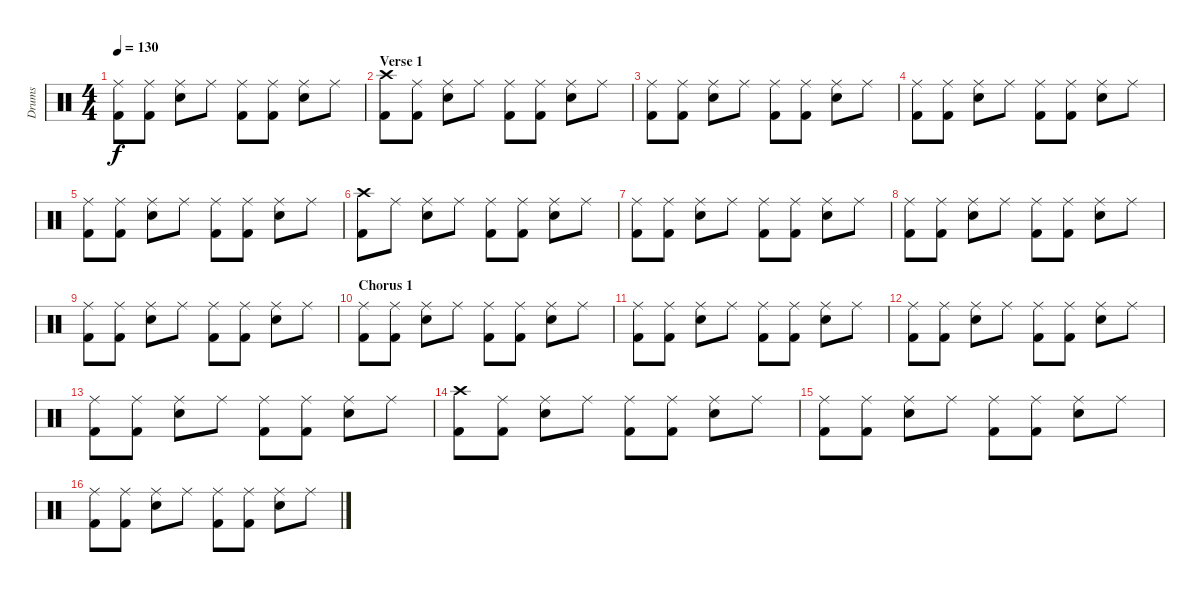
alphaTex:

\track ("Drums" "Drums") {instrument percussion}
\staff {score}
\articulation defaults
\ts (4 4)
\tempo 130
\clef neutral
\ks c
("Ride (middle)" "Kick (hit) 2").8{dy f} ("Ride (middle)" "Kick (hit) 2").8 ("Ride (middle)" "Electric Snare (hit)").8 "Ride (middle)".8 ("Ride (middle)" "Kick (hit) 2").8 ("Ride (middle)" "Kick (hit) 2").8 ("Ride (middle)" "Electric Snare (hit)").8 "Ride (middle)".8 |
\section ("" "Verse 1")
("Crash high (hit)" "Kick (hit) 2").8 ("Ride (middle)" "Kick (hit) 2").8 ("Ride (middle)" "Electric Snare (hit)").8 "Ride (middle)".8 ("Ride (middle)" "Kick (hit) 2").8 ("Ride (middle)" "Kick (hit) 2").8 ("Ride (middle)" "Electric Snare (hit)").8 "Ride (middle)".8 |
("Ride (middle)" "Kick (hit) 2").8 ("Ride (middle)" "Kick (hit) 2").8 ("Ride (middle)" "Electric Snare (hit)").8 "Ride (middle)".8 ("Ride (middle)" "Kick (hit) 2").8 ("Ride (middle)" "Kick (hit) 2").8 ("Ride (middle)" "Electric Snare (hit)").8 "Ride (middle)".8 |
("Ride (middle)" "Kick (hit) 2").8 ("Ride (middle)" "Kick (hit) 2").8 ("Ride (middle)" "Electric Snare (hit)").8 "Ride (middle)".8 ("Ride (middle)" "Kick (hit) 2").8 ("Ride (middle)" "Kick (hit) 2").8 ("Ride (middle)" "Electric Snare (hit)").8 "Ride (middle)".8 |
("Ride (middle)" "Kick (hit) 2").8 ("Ride (middle)" "Kick (hit) 2").8 ("Ride (middle)" "Electric Snare (hit)").8 "Ride (middle)".8 ("Ride (middle)" "Kick (hit) 2").8 ("Ride (middle)" "Kick (hit) 2").8 ("Ride (middle)" "Electric Snare (hit)").8 "Ride (middle)".8 |
("Crash high (hit)" "Kick (hit) 2").8 "Ride (middle)".8 ("Ride (middle)" "Electric Snare (hit)").8 "Ride (middle)".8 ("Ride (middle)" "Kick (hit) 2").8 ("Ride (middle)" "Kick (hit) 2").8 ("Ride (middle)" "Electric Snare (hit)").8 "Ride (middle)".8 |
("Ride (middle)" "Kick (hit) 2").8 ("Ride (middle)" "Kick (hit) 2").8 ("Ride (middle)" "Electric Snare (hit)").8 "Ride (middle)".8 ("Ride (middle)" "Kick (hit) 2").8 ("Ride (middle)" "Kick (hit) 2").8 ("Ride (middle)" "Electric Snare (hit)").8 "Ride (middle)".8 |
("Ride (middle)" "Kick (hit) 2").8 ("Ride (middle)" "Kick (hit) 2").8 ("Ride (middle)" "Electric Snare (hit)").8 "Ride (middle)".8 ("Ride (middle)" "Kick (hit) 2").8 ("Ride (middle)" "Kick (hit) 2").8 ("Ride (middle)" "Electric Snare (hit)").8 "Ride (middle)".8 |
("Ride (middle)" "Kick (hit) 2").8 ("Ride (middle)" "Kick (hit) 2").8 ("Ride (middle)" "Electric Snare (hit)").8 "Ride (middle)".8 ("Ride (middle)" "Kick (hit) 2").8 ("Ride (middle)" "Kick (hit) 2").8 ("Ride (middle)" "Electric Snare (hit)").8 "Ride (middle)".8 |
\section ("" "Chorus 1")
("Ride (middle)" "Kick (hit) 2").8 ("Ride (middle)" "Kick (hit) 2").8 ("Ride (middle)" "Electric Snare (hit)").8 "Ride (middle)".8 ("Ride (middle)" "Kick (hit) 2").8 ("Ride (middle)" "Kick (hit) 2").8 ("Ride (middle)" "Electric Snare (hit)").8 "Ride (middle)".8 |
("Ride (middle)" "Kick (hit) 2").8 ("Ride (middle)" "Kick (hit) 2").8 ("Ride (middle)" "Electric Snare (hit)").8 "Ride (middle)".8 ("Ride (middle)" "Kick (hit) 2").8 ("Ride (middle)" "Kick (hit) 2").8 ("Ride (middle)" "Electric Snare (hit)").8 "Ride (middle)".8 |
("Ride (middle)" "Kick (hit) 2").8 ("Ride (middle)" "Kick (hit) 2").8 ("Ride (middle)" "Electric Snare (hit)").8 "Ride (middle)".8 ("Ride (middle)" "Kick (hit) 2").8 ("Ride (middle)" "Kick (hit) 2").8 ("Ride (middle)" "Electric Snare (hit)").8 "Ride (middle)".8 |
("Ride (middle)" "Kick (hit) 2").8 ("Ride (middle)" "Kick (hit) 2").8 ("Ride (middle)" "Electric Snare (hit)").8 "Ride (middle)".8 ("Ride (middle)" "Kick (hit) 2").8 ("Ride (middle)" "Kick (hit) 2").8 ("Ride (middle)" "Electric Snare (hit)").8 "Ride (middle)".8 |
("Crash high (hit)" "Kick (hit) 2").8 ("Ride (middle)" "Kick (hit) 2").8 ("Ride (middle)" "Electric Snare (hit)").8 "Ride (middle)".8 ("Ride (middle)" "Kick (hit) 2").8 ("Ride (middle)" "Kick (hit) 2").8 ("Ride (middle)" "Electric Snare (hit)").8 "Ride (middle)".8 |
("Ride (middle)" "Kick (hit) 2").8 ("Ride (middle)" "Kick (hit) 2").8 ("Ride (middle)" "Electric Snare (hit)").8 "Ride (middle)".8 ("Ride (middle)" "Kick (hit) 2").8 ("Ride (middle)" "Kick (hit) 2").8 ("Ride (middle)" "Electric Snare (hit)").8 "Ride (middle)".8 |
("Ride (middle)" "Kick (hit) 2").8 ("Ride (middle)" "Kick (hit) 2").8 ("Ride (middle)" "Electric Snare (hit)").8 "Ride (middle)".8 ("Ride (middle)" "Kick (hit) 2").8 ("Ride (middle)" "Kick (hit) 2").8 ("Ride (middle)" "Electric Snare (hit)").8 "Ride (middle)".8
